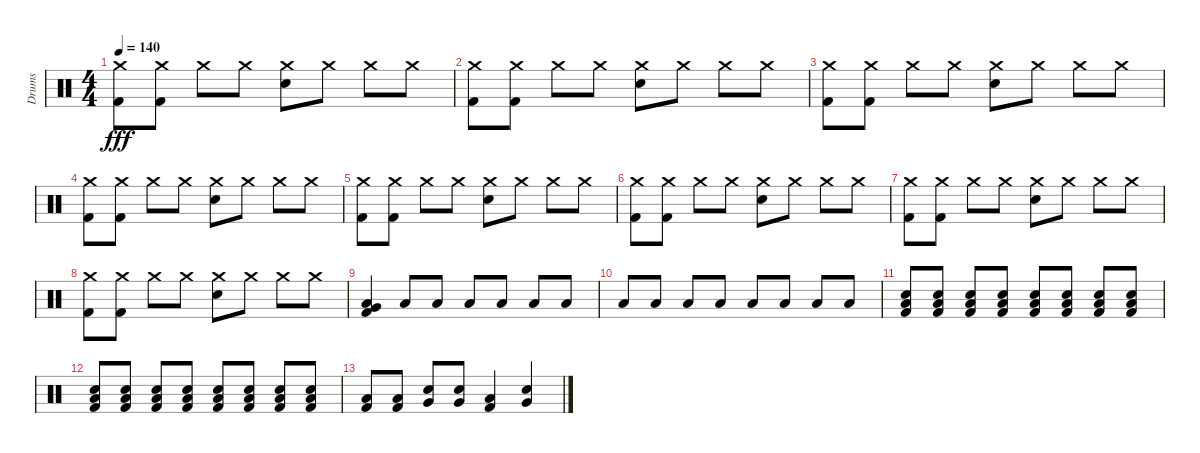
\track ("Drums" "Drums") {instrument percussion}
\staff {score}
\articulation defaults
\ts (4 4)
\tempo 140
\clef neutral
\ks c
("Crash medium (hit)" "Kick (hit) 2").8{dy fff} ("Crash medium (hit)" "Kick (hit) 2").8 "Crash medium (hit)".8 "Crash medium (hit)".8 ("Crash medium (hit)" "Electric Snare (hit)").8 "Crash medium (hit)".8 "Crash medium (hit)".8 "Crash medium (hit)".8 |
("Crash medium (hit)" "Kick (hit) 2").8 ("Crash medium (hit)" "Kick (hit) 2").8 "Crash medium (hit)".8 "Crash medium (hit)".8 ("Crash medium (hit)" "Electric Snare (hit)").8 "Crash medium (hit)".8 "Crash medium (hit)".8 "Crash medium (hit)".8 |
("Crash medium (hit)" "Kick (hit) 2").8 ("Crash medium (hit)" "Kick (hit) 2").8 "Crash medium (hit)".8 "Crash medium (hit)".8 ("Crash medium (hit)" "Electric Snare (hit)").8 "Crash medium (hit)".8 "Crash medium (hit)".8 "Crash medium (hit)".8 |
("Crash medium (hit)" "Kick (hit) 2").8 ("Crash medium (hit)" "Kick (hit) 2").8 "Crash medium (hit)".8 "Crash medium (hit)".8 ("Crash medium (hit)" "Electric Snare (hit)").8 "Crash medium (hit)".8 "Crash medium (hit)".8 "Crash medium (hit)".8 |
("Crash medium (hit)" "Kick (hit) 2").8 ("Crash medium (hit)" "Kick (hit) 2").8 "Crash medium (hit)".8 "Crash medium (hit)".8 ("Crash medium (hit)" "Electric Snare (hit)").8 "Crash medium (hit)".8 "Crash medium (hit)".8 "Crash medium (hit)".8 |
("Crash medium (hit)" "Kick (hit) 2").8 ("Crash medium (hit)" "Kick (hit) 2").8 "Crash medium (hit)".8 "Crash medium (hit)".8 ("Crash medium (hit)" "Electric Snare (hit)").8 "Crash medium (hit)".8 "Crash medium (hit)".8 "Crash medium (hit)".8 |
("Crash medium (hit)" "Kick (hit) 2").8 ("Crash medium (hit)" "Kick (hit) 2").8 "Crash medium (hit)".8 "Crash medium (hit)".8 ("Crash medium (hit)" "Electric Snare (hit)").8 "Crash medium (hit)".8 "Crash medium (hit)".8 "Crash medium (hit)".8 |
("Crash medium (hit)" "Kick (hit) 2").8 ("Crash medium (hit)" "Kick (hit) 2").8 "Crash medium (hit)".8 "Crash medium (hit)".8 ("Crash medium (hit)" "Electric Snare (hit)").8 "Crash medium (hit)".8 "Crash medium (hit)".8 "Crash medium (hit)".8 |
("Low Floor Tom (hit)" "Very Low Tom (hit)" "Kick (hit) 2").4 "Low Floor Tom (hit)".8 "Low Floor Tom (hit)".8 "Low Floor Tom (hit)".8 "Low Floor Tom (hit)".8 "Low Floor Tom (hit)".8 "Low Floor Tom (hit)".8 |
"Low Floor Tom (hit)".8 "Low Floor Tom (hit)".8 "Low Floor Tom (hit)".8 "Low Floor Tom (hit)".8 "Low Floor Tom (hit)".8 "Low Floor Tom (hit)".8 "Low Floor Tom (hit)".8 "Low Floor Tom (hit)".8 |
("Electric Snare (hit)" "Low Floor Tom (hit)" "Kick (hit) 2").8 ("Electric Snare (hit)" "Low Floor Tom (hit)" "Kick (hit) 2").8 ("Electric Snare (hit)" "Low Floor Tom (hit)" "Kick (hit) 2").8 ("Electric Snare (hit)" "Low Floor Tom (hit)" "Kick (hit) 2").8 ("Electric Snare (hit)" "Low Floor Tom (hit)" "Kick (hit) 2").8 ("Electric Snare (hit)" "Low Floor Tom (hit)" "Kick (hit) 2").8 ("Electric Snare (hit)" "Low Floor Tom (hit)" "Kick (hit) 2").8 ("Electric Snare (hit)" "Low Floor Tom (hit)" "Kick (hit) 2").8 |
("Electric Snare (hit)" "Low Floor Tom (hit)" "Kick (hit) 2").8 ("Electric Snare (hit)" "Low Floor Tom (hit)" "Kick (hit) 2").8 ("Electric Snare (hit)" "Low Floor Tom (hit)" "Kick (hit) 2").8 ("Electric Snare (hit)" "Low Floor Tom (hit)" "Kick (hit) 2").8 ("Electric Snare (hit)" "Low Floor Tom (hit)" "Kick (hit) 2").8 ("Electric Snare (hit)" "Low Floor Tom (hit)" "Kick (hit) 2").8 ("Electric Snare (hit)" "Low Floor Tom (hit)" "Kick (hit) 2").8 ("Electric Snare (hit)" "Low Floor Tom (hit)" "Kick (hit) 2").8 |
("Low Floor Tom (hit)" "Kick (hit) 2").8 ("Low Floor Tom (hit)" "Kick (hit) 2").8 ("Very Low Tom (hit)" "Electric Snare (hit)").8 ("Very Low Tom (hit)" "Electric Snare (hit)").8 ("Low Floor Tom (hit)" "Kick (hit) 2").4 ("Very Low Tom (hit)" "Electric Snare (hit)").4
